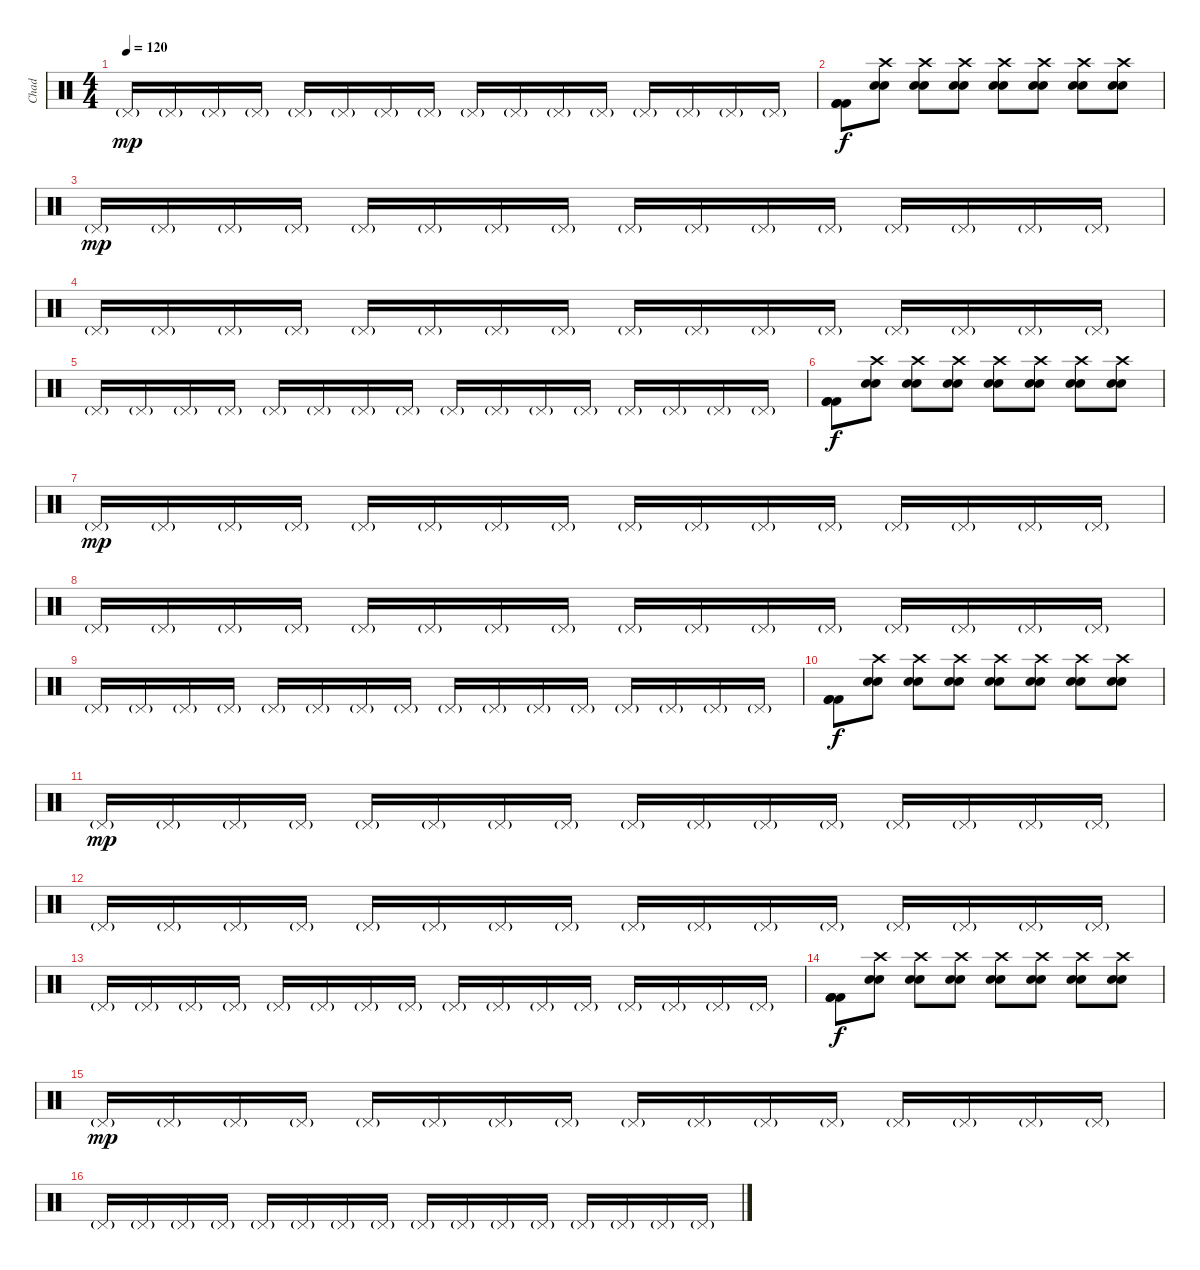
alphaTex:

\track ("Chad" "Chad") {instrument percussion}
\staff {score}
\articulation defaults
\ts (4 4)
\tempo 120
\clef neutral
\ks c "Pedal Hi-Hat (hit)"{g}.16{dy mp} "Pedal Hi-Hat (hit)"{g}.16 "Pedal Hi-Hat (hit)"{g}.16 "Pedal Hi-Hat (hit)"{g}.16 "Pedal Hi-Hat (hit)"{g}.16 "Pedal Hi-Hat (hit)"{g}.16 "Pedal Hi-Hat (hit)"{g}.16 "Pedal Hi-Hat (hit)"{g}.16 "Pedal Hi-Hat (hit)"{g}.16 "Pedal Hi-Hat (hit)"{g}.16 "Pedal Hi-Hat (hit)"{g}.16 "Pedal Hi-Hat (hit)"{g}.16 "Pedal Hi-Hat (hit)"{g}.16 "Pedal Hi-Hat (hit)"{g}.16 "Pedal Hi-Hat (hit)"{g}.16 "Pedal Hi-Hat (hit)"{g}.16
|
("Kick (hit) 2" "Kick (hit) 2" "Kick (hit) 2").8{dy f} ("Snare (hit) 2" "Electric Snare (hit)" "Crash high (hit)").8 ("Snare (hit) 2" "Electric Snare (hit)" "Crash high (hit)").8 ("Snare (hit) 2" "Electric Snare (hit)" "Crash high (hit)").8 ("Snare (hit) 2" "Electric Snare (hit)" "Crash high (hit)").8 ("Snare (hit) 2" "Electric Snare (hit)" "Crash high (hit)").8 ("Snare (hit) 2" "Electric Snare (hit)" "Crash high (hit)").8 ("Snare (hit) 2" "Electric Snare (hit)" "Crash high (hit)").8 |
"Pedal Hi-Hat (hit)"{g}.16{dy mp} "Pedal Hi-Hat (hit)"{g}.16 "Pedal Hi-Hat (hit)"{g}.16 "Pedal Hi-Hat (hit)"{g}.16 "Pedal Hi-Hat (hit)"{g}.16 "Pedal Hi-Hat (hit)"{g}.16 "Pedal Hi-Hat (hit)"{g}.16 "Pedal Hi-Hat (hit)"{g}.16 "Pedal Hi-Hat (hit)"{g}.16 "Pedal Hi-Hat (hit)"{g}.16 "Pedal Hi-Hat (hit)"{g}.16 "Pedal Hi-Hat (hit)"{g}.16 "Pedal Hi-Hat (hit)"{g}.16 "Pedal Hi-Hat (hit)"{g}.16 "Pedal Hi-Hat (hit)"{g}.16 "Pedal Hi-Hat (hit)"{g}.16 |
"Pedal Hi-Hat (hit)"{g}.16 "Pedal Hi-Hat (hit)"{g}.16 "Pedal Hi-Hat (hit)"{g}.16 "Pedal Hi-Hat (hit)"{g}.16 "Pedal Hi-Hat (hit)"{g}.16 "Pedal Hi-Hat (hit)"{g}.16 "Pedal Hi-Hat (hit)"{g}.16 "Pedal Hi-Hat (hit)"{g}.16 "Pedal Hi-Hat (hit)"{g}.16 "Pedal Hi-Hat (hit)"{g}.16 "Pedal Hi-Hat (hit)"{g}.16 "Pedal Hi-Hat (hit)"{g}.16 "Pedal Hi-Hat (hit)"{g}.16 "Pedal Hi-Hat (hit)"{g}.16 "Pedal Hi-Hat (hit)"{g}.16 "Pedal Hi-Hat (hit)"{g}.16 |
"Pedal Hi-Hat (hit)"{g}.16 "Pedal Hi-Hat (hit)"{g}.16 "Pedal Hi-Hat (hit)"{g}.16 "Pedal Hi-Hat (hit)"{g}.16 "Pedal Hi-Hat (hit)"{g}.16 "Pedal Hi-Hat (hit)"{g}.16 "Pedal Hi-Hat (hit)"{g}.16 "Pedal Hi-Hat (hit)"{g}.16 "Pedal Hi-Hat (hit)"{g}.16 "Pedal Hi-Hat (hit)"{g}.16 "Pedal Hi-Hat (hit)"{g}.16 "Pedal Hi-Hat (hit)"{g}.16 "Pedal Hi-Hat (hit)"{g}.16 "Pedal Hi-Hat (hit)"{g}.16 "Pedal Hi-Hat (hit)"{g}.16 "Pedal Hi-Hat (hit)"{g}.16 |
("Kick (hit) 2" "Kick (hit) 2" "Kick (hit) 2").8{dy f} ("Snare (hit) 2" "Electric Snare (hit)" "Crash high (hit)").8 ("Snare (hit) 2" "Electric Snare (hit)" "Crash high (hit)").8 ("Snare (hit) 2" "Electric Snare (hit)" "Crash high (hit)").8 ("Snare (hit) 2" "Electric Snare (hit)" "Crash high (hit)").8 ("Snare (hit) 2" "Electric Snare (hit)" "Crash high (hit)").8 ("Snare (hit) 2" "Electric Snare (hit)" "Crash high (hit)").8 ("Snare (hit) 2" "Electric Snare (hit)" "Crash high (hit)").8 |
"Pedal Hi-Hat (hit)"{g}.16{dy mp} "Pedal Hi-Hat (hit)"{g}.16 "Pedal Hi-Hat (hit)"{g}.16 "Pedal Hi-Hat (hit)"{g}.16 "Pedal Hi-Hat (hit)"{g}.16 "Pedal Hi-Hat (hit)"{g}.16 "Pedal Hi-Hat (hit)"{g}.16 "Pedal Hi-Hat (hit)"{g}.16 "Pedal Hi-Hat (hit)"{g}.16 "Pedal Hi-Hat (hit)"{g}.16 "Pedal Hi-Hat (hit)"{g}.16 "Pedal Hi-Hat (hit)"{g}.16 "Pedal Hi-Hat (hit)"{g}.16 "Pedal Hi-Hat (hit)"{g}.16 "Pedal Hi-Hat (hit)"{g}.16 "Pedal Hi-Hat (hit)"{g}.16 |
"Pedal Hi-Hat (hit)"{g}.16 "Pedal Hi-Hat (hit)"{g}.16 "Pedal Hi-Hat (hit)"{g}.16 "Pedal Hi-Hat (hit)"{g}.16 "Pedal Hi-Hat (hit)"{g}.16 "Pedal Hi-Hat (hit)"{g}.16 "Pedal Hi-Hat (hit)"{g}.16 "Pedal Hi-Hat (hit)"{g}.16 "Pedal Hi-Hat (hit)"{g}.16 "Pedal Hi-Hat (hit)"{g}.16 "Pedal Hi-Hat (hit)"{g}.16 "Pedal Hi-Hat (hit)"{g}.16 "Pedal Hi-Hat (hit)"{g}.16 "Pedal Hi-Hat (hit)"{g}.16 "Pedal Hi-Hat (hit)"{g}.16 "Pedal Hi-Hat (hit)"{g}.16 |
"Pedal Hi-Hat (hit)"{g}.16 "Pedal Hi-Hat (hit)"{g}.16 "Pedal Hi-Hat (hit)"{g}.16 "Pedal Hi-Hat (hit)"{g}.16 "Pedal Hi-Hat (hit)"{g}.16 "Pedal Hi-Hat (hit)"{g}.16 "Pedal Hi-Hat (hit)"{g}.16 "Pedal Hi-Hat (hit)"{g}.16 "Pedal Hi-Hat (hit)"{g}.16 "Pedal Hi-Hat (hit)"{g}.16 "Pedal Hi-Hat (hit)"{g}.16 "Pedal Hi-Hat (hit)"{g}.16 "Pedal Hi-Hat (hit)"{g}.16 "Pedal Hi-Hat (hit)"{g}.16 "Pedal Hi-Hat (hit)"{g}.16 "Pedal Hi-Hat (hit)"{g}.16 |
("Kick (hit) 2" "Kick (hit) 2" "Kick (hit) 2").8{dy f} ("Snare (hit) 2" "Electric Snare (hit)" "Crash high (hit)").8 ("Snare (hit) 2" "Electric Snare (hit)" "Crash high (hit)").8 ("Snare (hit) 2" "Electric Snare (hit)" "Crash high (hit)").8 ("Snare (hit) 2" "Electric Snare (hit)" "Crash high (hit)").8 ("Snare (hit) 2" "Electric Snare (hit)" "Crash high (hit)").8 ("Snare (hit) 2" "Electric Snare (hit)" "Crash high (hit)").8 ("Snare (hit) 2" "Electric Snare (hit)" "Crash high (hit)").8 |
"Pedal Hi-Hat (hit)"{g}.16{dy mp} "Pedal Hi-Hat (hit)"{g}.16 "Pedal Hi-Hat (hit)"{g}.16 "Pedal Hi-Hat (hit)"{g}.16 "Pedal Hi-Hat (hit)"{g}.16 "Pedal Hi-Hat (hit)"{g}.16 "Pedal Hi-Hat (hit)"{g}.16 "Pedal Hi-Hat (hit)"{g}.16 "Pedal Hi-Hat (hit)"{g}.16 "Pedal Hi-Hat (hit)"{g}.16 "Pedal Hi-Hat (hit)"{g}.16 "Pedal Hi-Hat (hit)"{g}.16 "Pedal Hi-Hat (hit)"{g}.16 "Pedal Hi-Hat (hit)"{g}.16 "Pedal Hi-Hat (hit)"{g}.16 "Pedal Hi-Hat (hit)"{g}.16 |
"Pedal Hi-Hat (hit)"{g}.16 "Pedal Hi-Hat (hit)"{g}.16 "Pedal Hi-Hat (hit)"{g}.16 "Pedal Hi-Hat (hit)"{g}.16 "Pedal Hi-Hat (hit)"{g}.16 "Pedal Hi-Hat (hit)"{g}.16 "Pedal Hi-Hat (hit)"{g}.16 "Pedal Hi-Hat (hit)"{g}.16 "Pedal Hi-Hat (hit)"{g}.16 "Pedal Hi-Hat (hit)"{g}.16 "Pedal Hi-Hat (hit)"{g}.16 "Pedal Hi-Hat (hit)"{g}.16 "Pedal Hi-Hat (hit)"{g}.16 "Pedal Hi-Hat (hit)"{g}.16 "Pedal Hi-Hat (hit)"{g}.16 "Pedal Hi-Hat (hit)"{g}.16 |
"Pedal Hi-Hat (hit)"{g}.16 "Pedal Hi-Hat (hit)"{g}.16 "Pedal Hi-Hat (hit)"{g}.16 "Pedal Hi-Hat (hit)"{g}.16 "Pedal Hi-Hat (hit)"{g}.16 "Pedal Hi-Hat (hit)"{g}.16 "Pedal Hi-Hat (hit)"{g}.16 "Pedal Hi-Hat (hit)"{g}.16 "Pedal Hi-Hat (hit)"{g}.16 "Pedal Hi-Hat (hit)"{g}.16 "Pedal Hi-Hat (hit)"{g}.16 "Pedal Hi-Hat (hit)"{g}.16 "Pedal Hi-Hat (hit)"{g}.16 "Pedal Hi-Hat (hit)"{g}.16 "Pedal Hi-Hat (hit)"{g}.16 "Pedal Hi-Hat (hit)"{g}.16 |
("Kick (hit) 2" "Kick (hit) 2" "Kick (hit) 2").8{dy f} ("Snare (hit) 2" "Electric Snare (hit)" "Crash high (hit)").8 ("Snare (hit) 2" "Electric Snare (hit)" "Crash high (hit)").8 ("Snare (hit) 2" "Electric Snare (hit)" "Crash high (hit)").8 ("Snare (hit) 2" "Electric Snare (hit)" "Crash high (hit)").8 ("Snare (hit) 2" "Electric Snare (hit)" "Crash high (hit)").8 ("Snare (hit) 2" "Electric Snare (hit)" "Crash high (hit)").8 ("Snare (hit) 2" "Electric Snare (hit)" "Crash high (hit)").8 |
"Pedal Hi-Hat (hit)"{g}.16{dy mp} "Pedal Hi-Hat (hit)"{g}.16 "Pedal Hi-Hat (hit)"{g}.16 "Pedal Hi-Hat (hit)"{g}.16 "Pedal Hi-Hat (hit)"{g}.16 "Pedal Hi-Hat (hit)"{g}.16 "Pedal Hi-Hat (hit)"{g}.16 "Pedal Hi-Hat (hit)"{g}.16 "Pedal Hi-Hat (hit)"{g}.16 "Pedal Hi-Hat (hit)"{g}.16 "Pedal Hi-Hat (hit)"{g}.16 "Pedal Hi-Hat (hit)"{g}.16 "Pedal Hi-Hat (hit)"{g}.16 "Pedal Hi-Hat (hit)"{g}.16 "Pedal Hi-Hat (hit)"{g}.16 "Pedal Hi-Hat (hit)"{g}.16 |
"Pedal Hi-Hat (hit)"{g}.16 "Pedal Hi-Hat (hit)"{g}.16 "Pedal Hi-Hat (hit)"{g}.16 "Pedal Hi-Hat (hit)"{g}.16 "Pedal Hi-Hat (hit)"{g}.16 "Pedal Hi-Hat (hit)"{g}.16 "Pedal Hi-Hat (hit)"{g}.16 "Pedal Hi-Hat (hit)"{g}.16 "Pedal Hi-Hat (hit)"{g}.16 "Pedal Hi-Hat (hit)"{g}.16 "Pedal Hi-Hat (hit)"{g}.16 "Pedal Hi-Hat (hit)"{g}.16 "Pedal Hi-Hat (hit)"{g}.16 "Pedal Hi-Hat (hit)"{g}.16 "Pedal Hi-Hat (hit)"{g}.16 "Pedal Hi-Hat (hit)"{g}.16
